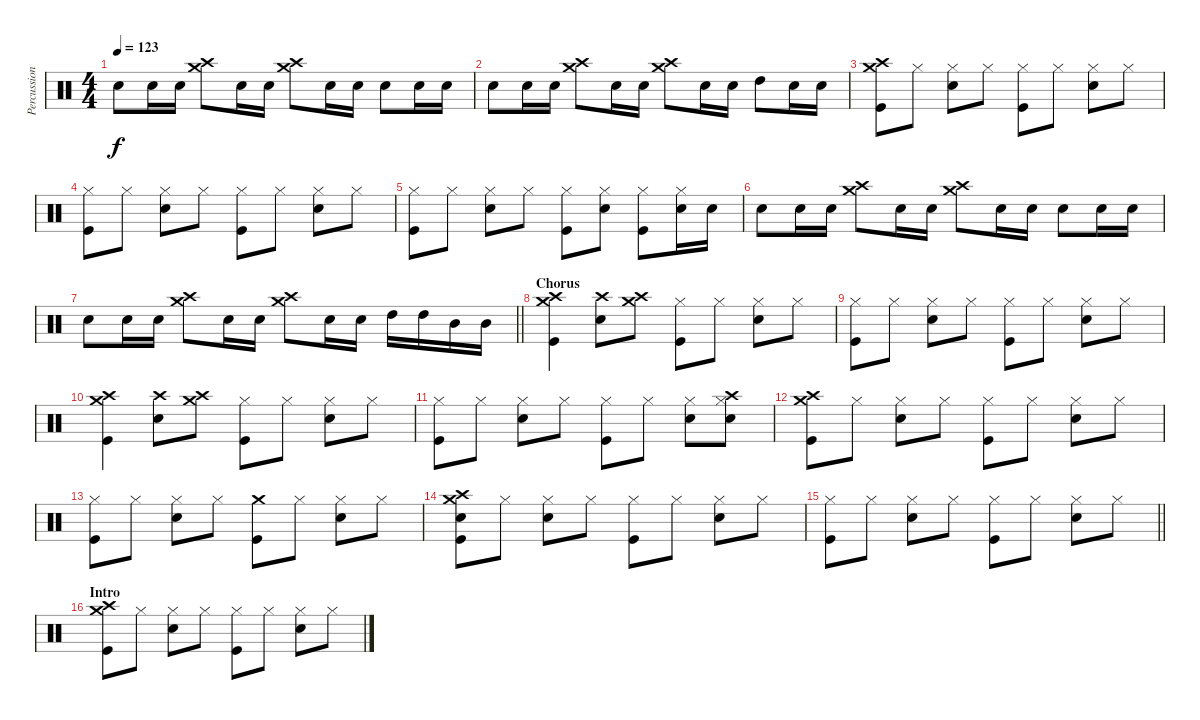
\track ("Percussion" "Percussion") {instrument percussion}
\staff {score}
\articulation defaults
\ts (4 4)
\tempo 123
\clef neutral
\ks c "Snare (hit) 2".8{dy f} "Snare (hit) 2".16 "Snare (hit) 2".16
("Crash medium (hit)" "Crash high (hit)").8 "Snare (hit) 2".16 "Snare (hit) 2".16 ("Crash medium (hit)" "Crash high (hit)").8 "Snare (hit) 2".16 "Snare (hit) 2".16 "Snare (hit) 2".8 "Snare (hit) 2".16 "Snare (hit) 2".16 |
"Snare (hit) 2".8 "Snare (hit) 2".16 "Snare (hit) 2".16 ("Crash high (hit)" "Crash medium (hit)").8 "Snare (hit) 2".16 "Snare (hit) 2".16 ("Crash high (hit)" "Crash medium (hit)").8 "Snare (hit) 2".16 "Snare (hit) 2".16 "High Tom (hit)".8 "Snare (hit) 2".16 "Snare (hit) 2".16 |
("Crash high (hit)" "Kick (hit)" "Crash medium (hit)").8 "Hi-Hat (closed)".8 ("Hi-Hat (closed)" "Snare (hit) 2").8 "Hi-Hat (closed)".8 ("Hi-Hat (closed)" "Kick (hit)").8 "Hi-Hat (closed)".8 ("Hi-Hat (closed)" "Snare (hit) 2").8 "Hi-Hat (closed)".8 |
("Hi-Hat (closed)" "Kick (hit)").8 "Hi-Hat (closed)".8 ("Hi-Hat (closed)" "Snare (hit) 2").8 "Hi-Hat (closed)".8 ("Hi-Hat (closed)" "Kick (hit)").8 "Hi-Hat (closed)".8 ("Hi-Hat (closed)" "Snare (hit) 2").8 "Hi-Hat (closed)".8 |
("Hi-Hat (closed)" "Kick (hit)").8 "Hi-Hat (closed)".8 ("Hi-Hat (closed)" "Snare (hit) 2").8 "Hi-Hat (closed)".8 ("Kick (hit)" "Hi-Hat (closed)").8 ("Snare (hit) 2" "Hi-Hat (closed)").8 ("Kick (hit)" "Hi-Hat (closed)").8 ("Snare (hit) 2" "Hi-Hat (closed)").16 "Snare (hit) 2".16 |
"Snare (hit) 2".8 "Snare (hit) 2".16 "Snare (hit) 2".16 ("Crash high (hit)" "Crash medium (hit)").8 "Snare (hit) 2".16 "Snare (hit) 2".16 ("Crash high (hit)" "Crash medium (hit)").8 "Snare (hit) 2".16 "Snare (hit) 2".16 "Snare (hit) 2".8 "Snare (hit) 2".16 "Snare (hit) 2".16 |
\barLineRight lightlight "Snare (hit) 2".8 "Snare (hit) 2".16 "Snare (hit) 2".16
("Crash high (hit)" "Crash medium (hit)").8 "Snare (hit) 2".16 "Snare (hit) 2".16 ("Crash high (hit)" "Crash medium (hit)").8 "Snare (hit) 2".16 "Snare (hit) 2".16 "High Tom (hit)".16 "High Tom (hit)".16 "Mid Tom (hit)".16 "Mid Tom (hit)".16 |
\section ("" "Chorus")
("Crash high (hit)" "Crash medium (hit)" "Kick (hit)").4 ("Crash high (hit)" "Snare (hit) 2").8 ("Crash high (hit)" "Crash medium (hit)").8 ("Hi-Hat (closed)" "Kick (hit)").8 "Hi-Hat (closed)".8 ("Hi-Hat (closed)" "Snare (hit) 2").8 "Hi-Hat (closed)".8 |
("Hi-Hat (closed)" "Kick (hit)").8 "Hi-Hat (closed)".8 ("Hi-Hat (closed)" "Snare (hit) 2").8 "Hi-Hat (closed)".8 ("Hi-Hat (closed)" "Kick (hit)").8 "Hi-Hat (closed)".8 ("Hi-Hat (closed)" "Snare (hit) 2").8 "Hi-Hat (closed)".8 |
("Crash high (hit)" "Crash medium (hit)" "Kick (hit)").4 ("Crash high (hit)" "Snare (hit) 2").8 ("Crash high (hit)" "Crash medium (hit)").8 ("Hi-Hat (closed)" "Kick (hit)").8 "Hi-Hat (closed)".8 ("Hi-Hat (closed)" "Snare (hit) 2").8 "Hi-Hat (closed)".8 |
("Hi-Hat (closed)" "Kick (hit)").8 "Hi-Hat (closed)".8 ("Hi-Hat (closed)" "Snare (hit) 2").8 "Hi-Hat (closed)".8 ("Hi-Hat (closed)" "Kick (hit)").8 "Hi-Hat (closed)".8 ("Hi-Hat (closed)" "Snare (hit) 2").8 ("Hi-Hat (closed)" "Snare (hit) 2" "Crash high (hit)").8 |
("Kick (hit)" "Crash medium (hit)" "Crash high (hit)").8 "Hi-Hat (closed)".8 ("Hi-Hat (closed)" "Snare (hit) 2").8 "Hi-Hat (closed)".8 ("Hi-Hat (closed)" "Kick (hit)").8 "Hi-Hat (closed)".8 ("Hi-Hat (closed)" "Snare (hit) 2").8 "Hi-Hat (closed)".8 |
("Hi-Hat (closed)" "Kick (hit)").8 "Hi-Hat (closed)".8 ("Hi-Hat (closed)" "Snare (hit) 2").8 "Hi-Hat (closed)".8 ("Crash medium (hit)" "Kick (hit)").8 "Hi-Hat (closed)".8 ("Hi-Hat (closed)" "Snare (hit) 2").8 "Hi-Hat (closed)".8 |
("Crash high (hit)" "Kick (hit)" "Crash medium (hit)" "Snare (hit) 2").8 "Hi-Hat (closed)".8 ("Hi-Hat (closed)" "Snare (hit) 2").8 "Hi-Hat (closed)".8 ("Hi-Hat (closed)" "Kick (hit)").8 "Hi-Hat (closed)".8 ("Hi-Hat (closed)" "Snare (hit) 2").8 "Hi-Hat (closed)".8 |
\barLineRight lightlight
("Hi-Hat (closed)" "Kick (hit)").8 "Hi-Hat (closed)".8 ("Hi-Hat (closed)" "Snare (hit) 2").8 "Hi-Hat (closed)".8 ("Hi-Hat (closed)" "Kick (hit)").8 "Hi-Hat (closed)".8 ("Hi-Hat (closed)" "Snare (hit) 2").8 "Hi-Hat (closed)".8 |
\section ("" "Intro")
("Crash high (hit)" "Kick (hit)" "Crash medium (hit)").8 "Hi-Hat (closed)".8 ("Hi-Hat (closed)" "Snare (hit) 2").8 "Hi-Hat (closed)".8 ("Hi-Hat (closed)" "Kick (hit)").8 "Hi-Hat (closed)".8 ("Hi-Hat (closed)" "Snare (hit) 2").8 "Hi-Hat (closed)".8
